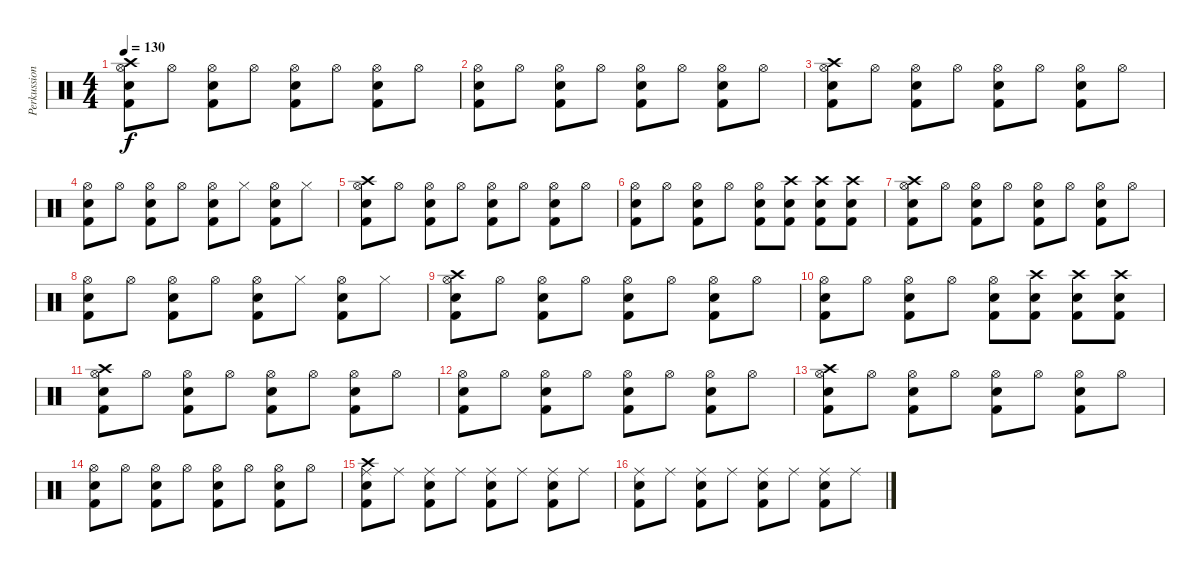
\track ("Perkussion" "Perkussion") {instrument percussion}
\staff {score}
\articulation defaults
\ts (4 4)
\tempo 130
\clef neutral
\ks c
("Hi-Hat (open)" "Crash high (hit)" "Electric Snare (hit)" "Kick (hit) 2").8{dy f} "Hi-Hat (open)".8 ("Hi-Hat (open)" "Electric Snare (hit)" "Kick (hit) 2").8 "Hi-Hat (open)".8 ("Hi-Hat (open)" "Electric Snare (hit)" "Kick (hit) 2").8 "Hi-Hat (open)".8 ("Hi-Hat (open)" "Electric Snare (hit)" "Kick (hit) 2").8 "Hi-Hat (open)".8 |
("Hi-Hat (open)" "Electric Snare (hit)" "Kick (hit) 2").8 "Hi-Hat (open)".8 ("Hi-Hat (open)" "Electric Snare (hit)" "Kick (hit) 2").8 "Hi-Hat (open)".8 ("Hi-Hat (open)" "Electric Snare (hit)" "Kick (hit) 2").8 "Hi-Hat (open)".8 ("Hi-Hat (open)" "Electric Snare (hit)" "Kick (hit) 2").8 "Hi-Hat (open)".8 |
("Hi-Hat (open)" "Crash high (hit)" "Electric Snare (hit)" "Kick (hit) 2").8 "Hi-Hat (open)".8 ("Hi-Hat (open)" "Electric Snare (hit)" "Kick (hit) 2").8 "Hi-Hat (open)".8 ("Hi-Hat (open)" "Electric Snare (hit)" "Kick (hit) 2").8 "Hi-Hat (open)".8 ("Hi-Hat (open)" "Electric Snare (hit)" "Kick (hit) 2").8 "Hi-Hat (open)".8 |
("Hi-Hat (open)" "Electric Snare (hit)" "Kick (hit) 2").8 "Hi-Hat (open)".8 ("Hi-Hat (open)" "Electric Snare (hit)" "Kick (hit) 2").8 "Hi-Hat (open)".8 ("Hi-Hat (open)" "Electric Snare (hit)" "Kick (hit) 2").8 "Hi-Hat (closed)".8 ("Hi-Hat (open)" "Electric Snare (hit)" "Kick (hit) 2").8 "Hi-Hat (closed)".8 |
("Hi-Hat (open)" "Crash high (hit)" "Electric Snare (hit)" "Kick (hit) 2").8 "Hi-Hat (open)".8 ("Hi-Hat (open)" "Electric Snare (hit)" "Kick (hit) 2").8 "Hi-Hat (open)".8 ("Hi-Hat (open)" "Electric Snare (hit)" "Kick (hit) 2").8 "Hi-Hat (open)".8 ("Hi-Hat (open)" "Electric Snare (hit)" "Kick (hit) 2").8 "Hi-Hat (open)".8 |
("Hi-Hat (open)" "Electric Snare (hit)" "Kick (hit) 2").8 "Hi-Hat (open)".8 ("Hi-Hat (open)" "Electric Snare (hit)" "Kick (hit) 2").8 "Hi-Hat (open)".8 ("Hi-Hat (open)" "Electric Snare (hit)" "Kick (hit) 2").8 ("Crash high (hit)" "Electric Snare (hit)" "Kick (hit) 2").8 ("Crash high (hit)" "Electric Snare (hit)" "Kick (hit) 2").8 ("Crash high (hit)" "Electric Snare (hit)" "Kick (hit) 2").8 |
("Hi-Hat (open)" "Crash high (hit)" "Electric Snare (hit)" "Kick (hit) 2").8 "Hi-Hat (open)".8 ("Hi-Hat (open)" "Electric Snare (hit)" "Kick (hit) 2").8 "Hi-Hat (open)".8 ("Hi-Hat (open)" "Electric Snare (hit)" "Kick (hit) 2").8 "Hi-Hat (open)".8 ("Hi-Hat (open)" "Electric Snare (hit)" "Kick (hit) 2").8 "Hi-Hat (open)".8 |
("Hi-Hat (open)" "Electric Snare (hit)" "Kick (hit) 2").8 "Hi-Hat (open)".8 ("Hi-Hat (open)" "Electric Snare (hit)" "Kick (hit) 2").8 "Hi-Hat (open)".8 ("Hi-Hat (open)" "Electric Snare (hit)" "Kick (hit) 2").8 "Hi-Hat (closed)".8 ("Hi-Hat (open)" "Electric Snare (hit)" "Kick (hit) 2").8 "Hi-Hat (closed)".8 |
("Hi-Hat (open)" "Crash high (hit)" "Electric Snare (hit)" "Kick (hit) 2").8 "Hi-Hat (open)".8 ("Hi-Hat (open)" "Electric Snare (hit)" "Kick (hit) 2").8 "Hi-Hat (open)".8 ("Hi-Hat (open)" "Electric Snare (hit)" "Kick (hit) 2").8 "Hi-Hat (open)".8 ("Hi-Hat (open)" "Electric Snare (hit)" "Kick (hit) 2").8 "Hi-Hat (open)".8 |
("Hi-Hat (open)" "Electric Snare (hit)" "Kick (hit) 2").8 "Hi-Hat (open)".8 ("Hi-Hat (open)" "Electric Snare (hit)" "Kick (hit) 2").8 "Hi-Hat (open)".8 ("Hi-Hat (open)" "Electric Snare (hit)" "Kick (hit) 2").8 ("Crash high (hit)" "Electric Snare (hit)" "Kick (hit) 2").8 ("Crash high (hit)" "Electric Snare (hit)" "Kick (hit) 2").8 ("Crash high (hit)" "Electric Snare (hit)" "Kick (hit) 2").8 |
("Hi-Hat (open)" "Crash high (hit)" "Electric Snare (hit)" "Kick (hit) 2").8 "Hi-Hat (open)".8 ("Hi-Hat (open)" "Electric Snare (hit)" "Kick (hit) 2").8 "Hi-Hat (open)".8 ("Hi-Hat (open)" "Electric Snare (hit)" "Kick (hit) 2").8 "Hi-Hat (open)".8 ("Hi-Hat (open)" "Electric Snare (hit)" "Kick (hit) 2").8 "Hi-Hat (open)".8 |
("Hi-Hat (open)" "Electric Snare (hit)" "Kick (hit) 2").8 "Hi-Hat (open)".8 ("Hi-Hat (open)" "Electric Snare (hit)" "Kick (hit) 2").8 "Hi-Hat (open)".8 ("Hi-Hat (open)" "Electric Snare (hit)" "Kick (hit) 2").8 "Hi-Hat (open)".8 ("Hi-Hat (open)" "Electric Snare (hit)" "Kick (hit) 2").8 "Hi-Hat (open)".8 |
("Hi-Hat (open)" "Crash high (hit)" "Electric Snare (hit)" "Kick (hit) 2").8 "Hi-Hat (open)".8 ("Hi-Hat (open)" "Electric Snare (hit)" "Kick (hit) 2").8 "Hi-Hat (open)".8 ("Hi-Hat (open)" "Electric Snare (hit)" "Kick (hit) 2").8 "Hi-Hat (open)".8 ("Hi-Hat (open)" "Electric Snare (hit)" "Kick (hit) 2").8 "Hi-Hat (open)".8 |
("Hi-Hat (open)" "Electric Snare (hit)" "Kick (hit) 2").8 "Hi-Hat (open)".8 ("Hi-Hat (open)" "Electric Snare (hit)" "Kick (hit) 2").8 "Hi-Hat (open)".8 ("Hi-Hat (open)" "Electric Snare (hit)" "Kick (hit) 2").8 "Hi-Hat (open)".8 ("Hi-Hat (open)" "Electric Snare (hit)" "Kick (hit) 2").8 "Hi-Hat (open)".8 |
("Ride (middle)" "Crash high (hit)" "Electric Snare (hit)" "Kick (hit) 2").8 "Ride (middle)".8 ("Ride (middle)" "Electric Snare (hit)" "Kick (hit) 2").8 "Ride (middle)".8 ("Ride (middle)" "Electric Snare (hit)" "Kick (hit) 2").8 "Ride (middle)".8 ("Ride (middle)" "Electric Snare (hit)" "Kick (hit) 2").8 "Ride (middle)".8 |
("Ride (middle)" "Electric Snare (hit)" "Kick (hit) 2").8 "Ride (middle)".8 ("Ride (middle)" "Electric Snare (hit)" "Kick (hit) 2").8 "Ride (middle)".8 ("Ride (middle)" "Electric Snare (hit)" "Kick (hit) 2").8 "Ride (middle)".8 ("Ride (middle)" "Electric Snare (hit)" "Kick (hit) 2").8 "Ride (middle)".8
